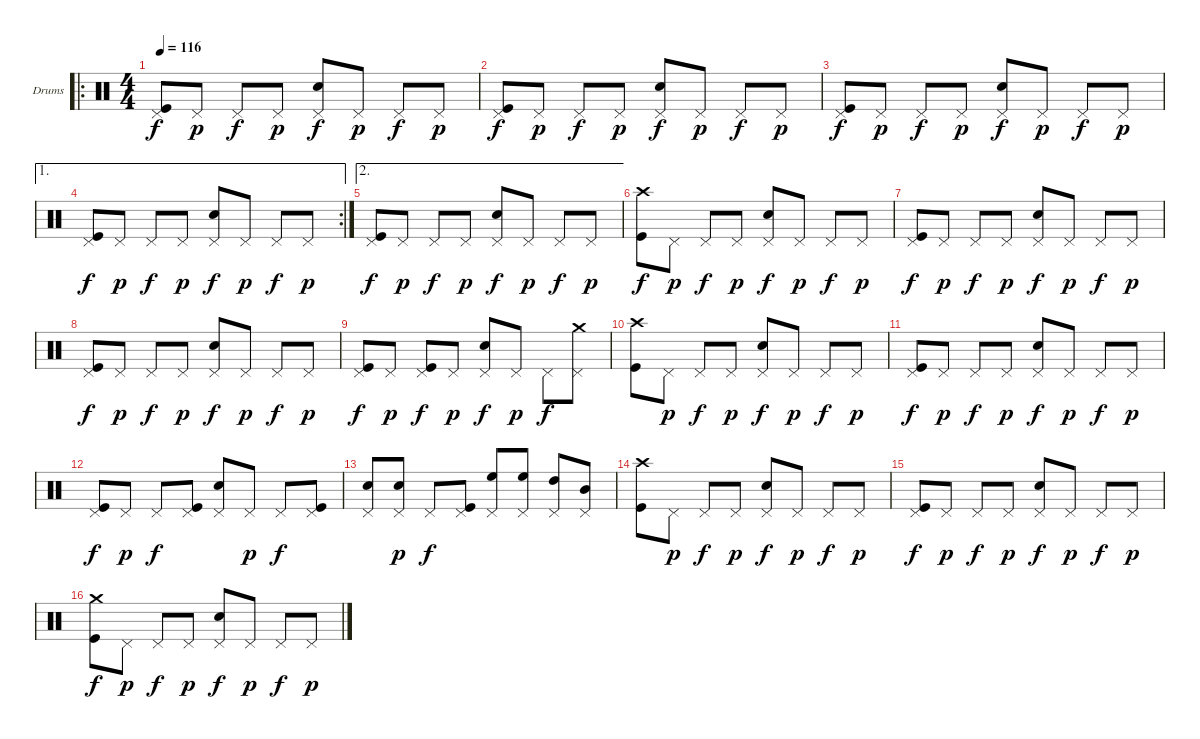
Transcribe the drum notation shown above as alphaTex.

\bracketExtendMode nobrackets
\firstSystemTrackNameOrientation horizontal
\otherSystemsTrackNameOrientation horizontal
\track ("Drumkit" "Drums") {instrument percussion}
\staff {score}
\articulation defaults
\ro
\ts (4 4)
\tempo 116
\clef neutral
\ks c
("Kick (hit)" "Pedal Hi-Hat (hit)").8{dy f} "Pedal Hi-Hat (hit)".8{dy p} "Pedal Hi-Hat (hit)".8{dy f} "Pedal Hi-Hat (hit)".8{dy p} ("Pedal Hi-Hat (hit)" "Snare (hit) 2").8{dy f} "Pedal Hi-Hat (hit)".8{dy p} "Pedal Hi-Hat (hit)".8{dy f} "Pedal Hi-Hat (hit)".8{dy p} |
("Kick (hit)" "Pedal Hi-Hat (hit)").8{dy f} "Pedal Hi-Hat (hit)".8{dy p} "Pedal Hi-Hat (hit)".8{dy f} "Pedal Hi-Hat (hit)".8{dy p} ("Pedal Hi-Hat (hit)" "Snare (hit) 2").8{dy f} "Pedal Hi-Hat (hit)".8{dy p} "Pedal Hi-Hat (hit)".8{dy f} "Pedal Hi-Hat (hit)".8{dy p} |
("Kick (hit)" "Pedal Hi-Hat (hit)").8{dy f} "Pedal Hi-Hat (hit)".8{dy p} "Pedal Hi-Hat (hit)".8{dy f} "Pedal Hi-Hat (hit)".8{dy p} ("Pedal Hi-Hat (hit)" "Snare (hit) 2").8{dy f} "Pedal Hi-Hat (hit)".8{dy p} "Pedal Hi-Hat (hit)".8{dy f} "Pedal Hi-Hat (hit)".8{dy p} |
\ae 1
\rc 2
("Kick (hit)" "Pedal Hi-Hat (hit)").8{dy f} "Pedal Hi-Hat (hit)".8{dy p} "Pedal Hi-Hat (hit)".8{dy f} "Pedal Hi-Hat (hit)".8{dy p} ("Pedal Hi-Hat (hit)" "Snare (hit) 2").8{dy f} "Pedal Hi-Hat (hit)".8{dy p} "Pedal Hi-Hat (hit)".8{dy f} "Pedal Hi-Hat (hit)".8{dy p} |
\ae 2
("Kick (hit)" "Pedal Hi-Hat (hit)").8{dy f} "Pedal Hi-Hat (hit)".8{dy p} "Pedal Hi-Hat (hit)".8{dy f} "Pedal Hi-Hat (hit)".8{dy p} ("Pedal Hi-Hat (hit)" "Snare (hit) 2").8{dy f} "Pedal Hi-Hat (hit)".8{dy p} "Pedal Hi-Hat (hit)".8{dy f} "Pedal Hi-Hat (hit)".8{dy p} |
("Kick (hit)" "Crash high (hit)").8{dy f} "Pedal Hi-Hat (hit)".8{dy p} "Pedal Hi-Hat (hit)".8{dy f} "Pedal Hi-Hat (hit)".8{dy p} ("Pedal Hi-Hat (hit)" "Snare (hit) 2").8{dy f} "Pedal Hi-Hat (hit)".8{dy p} "Pedal Hi-Hat (hit)".8{dy f} "Pedal Hi-Hat (hit)".8{dy p} |
("Kick (hit)" "Pedal Hi-Hat (hit)").8{dy f} "Pedal Hi-Hat (hit)".8{dy p} "Pedal Hi-Hat (hit)".8{dy f} "Pedal Hi-Hat (hit)".8{dy p} ("Pedal Hi-Hat (hit)" "Snare (hit) 2").8{dy f} "Pedal Hi-Hat (hit)".8{dy p} "Pedal Hi-Hat (hit)".8{dy f} "Pedal Hi-Hat (hit)".8{dy p} |
("Kick (hit)" "Pedal Hi-Hat (hit)").8{dy f} "Pedal Hi-Hat (hit)".8{dy p} "Pedal Hi-Hat (hit)".8{dy f} "Pedal Hi-Hat (hit)".8{dy p} ("Pedal Hi-Hat (hit)" "Snare (hit) 2").8{dy f} "Pedal Hi-Hat (hit)".8{dy p} "Pedal Hi-Hat (hit)".8{dy f} "Pedal Hi-Hat (hit)".8{dy p} |
("Kick (hit)" "Pedal Hi-Hat (hit)").8{dy f} "Pedal Hi-Hat (hit)".8{dy p} ("Kick (hit)" "Pedal Hi-Hat (hit)").8{dy f} "Pedal Hi-Hat (hit)".8{dy p} ("Pedal Hi-Hat (hit)" "Snare (hit) 2").8{dy f} "Pedal Hi-Hat (hit)".8{dy p} "Pedal Hi-Hat (hit)".8{dy f} ("Crash medium (hit)" "Pedal Hi-Hat (hit)").8 |
("Kick (hit)" "Crash high (hit)").8 "Pedal Hi-Hat (hit)".8{dy p} "Pedal Hi-Hat (hit)".8{dy f} "Pedal Hi-Hat (hit)".8{dy p} ("Pedal Hi-Hat (hit)" "Snare (hit) 2").8{dy f} "Pedal Hi-Hat (hit)".8{dy p} "Pedal Hi-Hat (hit)".8{dy f} "Pedal Hi-Hat (hit)".8{dy p} |
("Kick (hit)" "Pedal Hi-Hat (hit)").8{dy f} "Pedal Hi-Hat (hit)".8{dy p} "Pedal Hi-Hat (hit)".8{dy f} "Pedal Hi-Hat (hit)".8{dy p} ("Pedal Hi-Hat (hit)" "Snare (hit) 2").8{dy f} "Pedal Hi-Hat (hit)".8{dy p} "Pedal Hi-Hat (hit)".8{dy f} "Pedal Hi-Hat (hit)".8{dy p} |
("Kick (hit)" "Pedal Hi-Hat (hit)").8{dy f} "Pedal Hi-Hat (hit)".8{dy p} "Pedal Hi-Hat (hit)".8{dy f} ("Kick (hit)" "Pedal Hi-Hat (hit)").8 ("Pedal Hi-Hat (hit)" "Snare (hit) 2").8 "Pedal Hi-Hat (hit)".8{dy p} "Pedal Hi-Hat (hit)".8{dy f} ("Kick (hit)" "Pedal Hi-Hat (hit)").8 |
("Pedal Hi-Hat (hit)" "Snare (hit) 2").8 ("Pedal Hi-Hat (hit)" "Snare (hit) 2").8{dy p} "Pedal Hi-Hat (hit)".8{dy f} ("Kick (hit)" "Pedal Hi-Hat (hit)").8 ("High Floor Tom (hit)" "Pedal Hi-Hat (hit)").8 ("High Floor Tom (hit)" "Pedal Hi-Hat (hit)").8 ("High Tom (hit)" "Pedal Hi-Hat (hit)").8 ("Mid Tom (hit)" "Pedal Hi-Hat (hit)").8 |
("Kick (hit)" "Crash high (hit)").8 "Pedal Hi-Hat (hit)".8{dy p} "Pedal Hi-Hat (hit)".8{dy f} "Pedal Hi-Hat (hit)".8{dy p} ("Pedal Hi-Hat (hit)" "Snare (hit) 2").8{dy f} "Pedal Hi-Hat (hit)".8{dy p} "Pedal Hi-Hat (hit)".8{dy f} "Pedal Hi-Hat (hit)".8{dy p} |
("Kick (hit)" "Pedal Hi-Hat (hit)").8{dy f} "Pedal Hi-Hat (hit)".8{dy p} "Pedal Hi-Hat (hit)".8{dy f} "Pedal Hi-Hat (hit)".8{dy p} ("Pedal Hi-Hat (hit)" "Snare (hit) 2").8{dy f} "Pedal Hi-Hat (hit)".8{dy p} "Pedal Hi-Hat (hit)".8{dy f} "Pedal Hi-Hat (hit)".8{dy p} |
("Kick (hit)" "Crash medium (hit)").8{dy f} "Pedal Hi-Hat (hit)".8{dy p} "Pedal Hi-Hat (hit)".8{dy f} "Pedal Hi-Hat (hit)".8{dy p} ("Pedal Hi-Hat (hit)" "Snare (hit) 2").8{dy f} "Pedal Hi-Hat (hit)".8{dy p} "Pedal Hi-Hat (hit)".8{dy f} "Pedal Hi-Hat (hit)".8{dy p}
